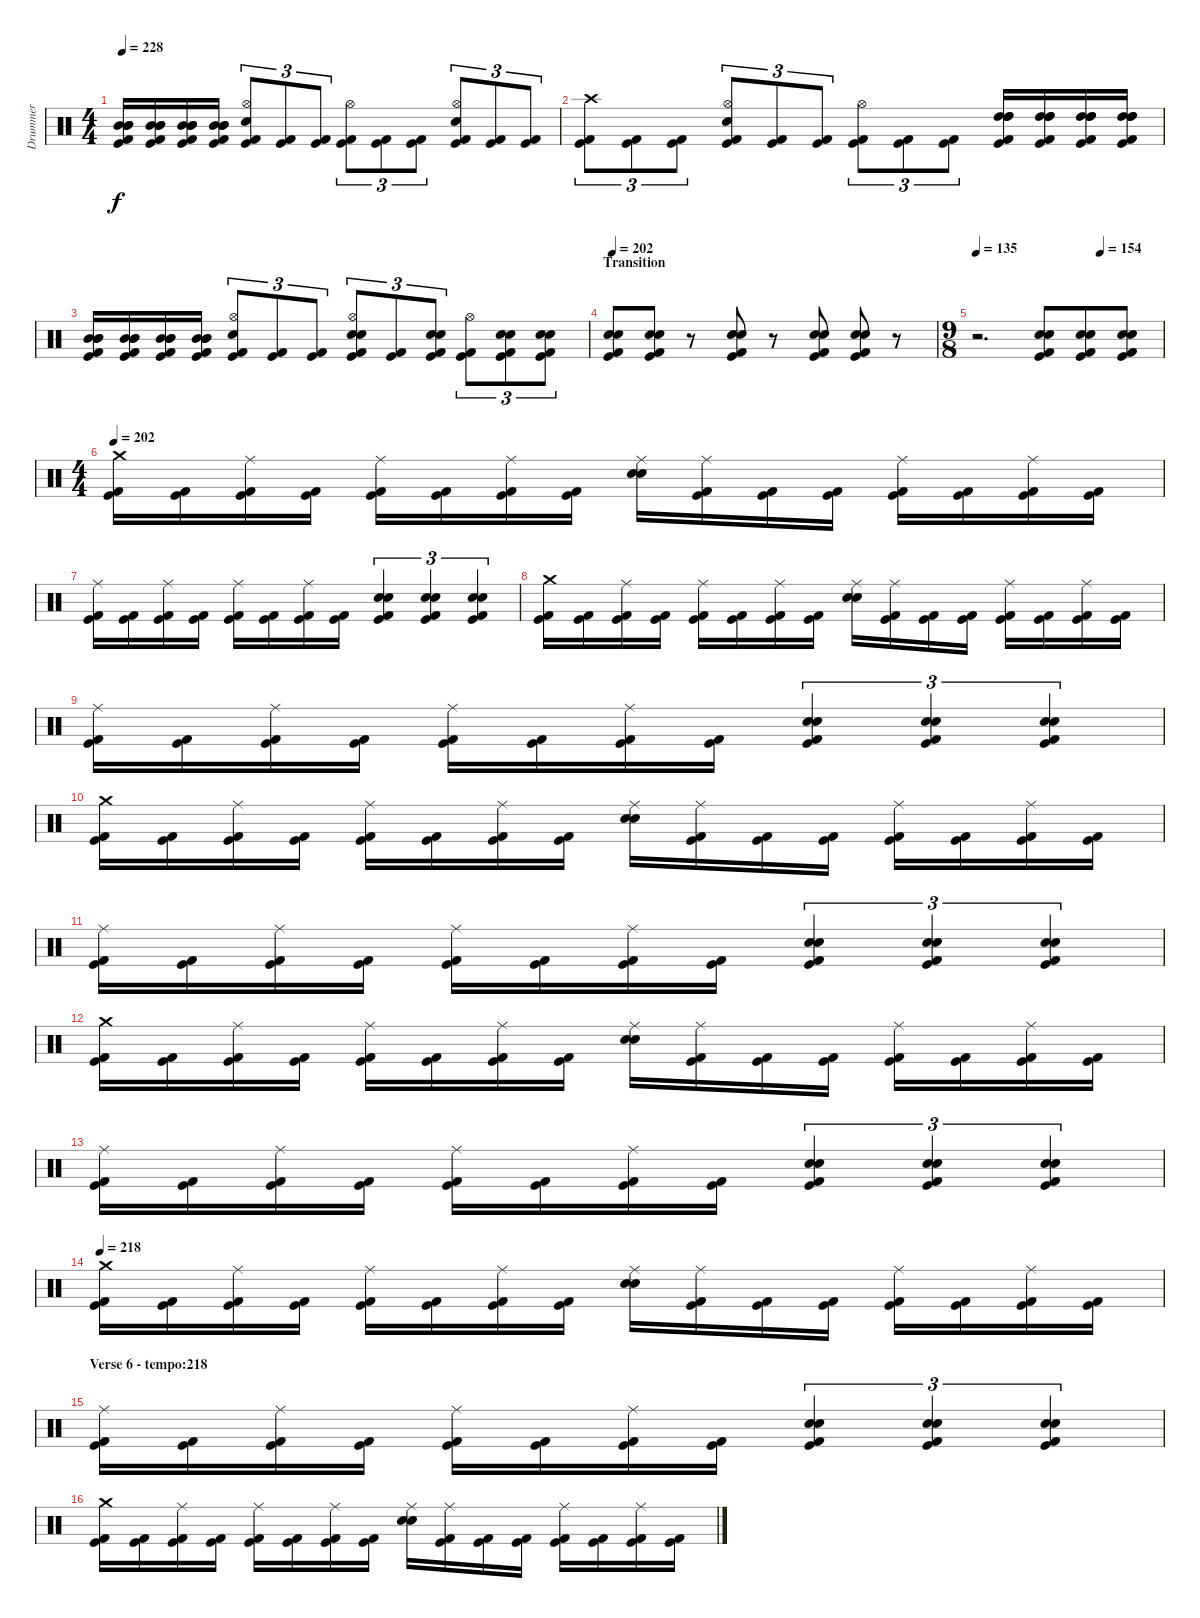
\track ("Drummer" "Drummer") {instrument percussion}
\staff {score}
\articulation defaults
\ts (4 4)
\tempo 228
\clef neutral
\ks c
("Mid Tom (hit)" "Mid Tom (hit)" "Mid Tom (hit)" "Kick (hit)" "Kick (hit) 2").16{dy f} ("Mid Tom (hit)" "Mid Tom (hit)" "Mid Tom (hit)" "Kick (hit)" "Kick (hit) 2").16 ("Mid Tom (hit)" "Mid Tom (hit)" "Mid Tom (hit)" "Kick (hit)" "Kick (hit) 2").16 ("Mid Tom (hit)" "Mid Tom (hit)" "Mid Tom (hit)" "Kick (hit)" "Kick (hit) 2").16 ("Hi-Hat (open)" "Snare (hit) 2" "Kick (hit)" "Kick (hit) 2").8{tu (3 2)} ("Kick (hit)" "Kick (hit) 2").8{tu (3 2)} ("Kick (hit)" "Kick (hit) 2").8{tu (3 2)} ("Hi-Hat (open)" "Kick (hit)" "Kick (hit) 2").8{tu (3 2)} ("Kick (hit)" "Kick (hit) 2").8{tu (3 2)} ("Kick (hit)" "Kick (hit) 2").8{tu (3 2)} ("Hi-Hat (open)" "Snare (hit) 2" "Kick (hit)" "Kick (hit) 2").8{tu (3 2)} ("Kick (hit)" "Kick (hit) 2").8{tu (3 2)} ("Kick (hit)" "Kick (hit) 2").8{tu (3 2)} |
("Crash high (hit)" "Kick (hit)" "Kick (hit) 2").8{tu (3 2)} ("Kick (hit)" "Kick (hit) 2").8{tu (3 2)} ("Kick (hit)" "Kick (hit) 2").8{tu (3 2)} ("Hi-Hat (open)" "Snare (hit) 2" "Kick (hit)" "Kick (hit) 2").8{tu (3 2)} ("Kick (hit)" "Kick (hit) 2").8{tu (3 2)} ("Kick (hit)" "Kick (hit) 2").8{tu (3 2)} ("Hi-Hat (open)" "Kick (hit)" "Kick (hit) 2").8{tu (3 2)} ("Kick (hit)" "Kick (hit) 2").8{tu (3 2)} ("Kick (hit)" "Kick (hit) 2").8{tu (3 2)} ("High Tom (hit)" "High Tom (hit)" "High Tom (hit)" "Kick (hit)" "Kick (hit) 2").16 ("High Tom (hit)" "High Tom (hit)" "High Tom (hit)" "Kick (hit)" "Kick (hit) 2").16 ("High Tom (hit)" "High Tom (hit)" "High Tom (hit)" "Kick (hit)" "Kick (hit) 2").16 ("High Tom (hit)" "High Tom (hit)" "High Tom (hit)" "Kick (hit)" "Kick (hit) 2").16 |
("Mid Tom (hit)" "Mid Tom (hit)" "Mid Tom (hit)" "Kick (hit)" "Kick (hit) 2").16 ("Mid Tom (hit)" "Mid Tom (hit)" "Mid Tom (hit)" "Kick (hit)" "Kick (hit) 2").16 ("Mid Tom (hit)" "Mid Tom (hit)" "Mid Tom (hit)" "Kick (hit)" "Kick (hit) 2").16 ("Mid Tom (hit)" "Mid Tom (hit)" "Mid Tom (hit)" "Kick (hit)" "Kick (hit) 2").16 ("Hi-Hat (open)" "Snare (hit) 2" "Kick (hit)" "Kick (hit) 2").8{tu (3 2)} ("Kick (hit)" "Kick (hit) 2").8{tu (3 2)} ("Kick (hit)" "Kick (hit) 2").8{tu (3 2)} ("Hi-Hat (open)" "Electric Snare (hit)" "Snare (hit) 2" "Kick (hit)" "Kick (hit) 2").8{tu (3 2)} ("Kick (hit)" "Kick (hit) 2").8{tu (3 2)} ("Electric Snare (hit)" "Snare (hit) 2" "Kick (hit)" "Kick (hit) 2").8{tu (3 2)} ("Hi-Hat (open)" "Kick (hit)" "Kick (hit) 2").8{tu (3 2)} ("Electric Snare (hit)" "Snare (hit) 2" "Kick (hit)" "Kick (hit) 2").8{tu (3 2)} ("Snare (hit) 2" "Electric Snare (hit)" "Kick (hit)" "Kick (hit) 2").8{tu (3 2)} |
\section ("" "Transition")
\tempo 202
("Electric Snare (hit)" "Snare (hit) 2" "Kick (hit)" "Kick (hit) 2").8 ("Electric Snare (hit)" "Snare (hit) 2" "Kick (hit) 2" "Kick (hit)").8 r.8 ("Electric Snare (hit)" "Snare (hit) 2" "Kick (hit)" "Kick (hit) 2").8 r.8 ("Electric Snare (hit)" "Snare (hit) 2" "Kick (hit)" "Kick (hit) 2").8 ("Electric Snare (hit)" "Kick (hit) 2" "Kick (hit)" "Snare (hit) 2").8 r.8 |
\ts (9 8)
\tempo 135
\tempo (154 0.6666666666666666)
r.2{d} ("Electric Snare (hit)" "Snare (hit) 2" "Kick (hit)" "Kick (hit) 2").8 ("Electric Snare (hit)" "Snare (hit) 2" "Kick (hit)" "Kick (hit) 2").8 ("Electric Snare (hit)" "Snare (hit) 2" "Kick (hit)" "Kick (hit) 2").8 |
\ts (4 4)
\tempo 202
("Crash medium (hit)" "Kick (hit)" "Kick (hit) 2").16 ("Kick (hit)" "Kick (hit) 2").16 ("Ride (middle)" "Kick (hit)" "Kick (hit) 2").16 ("Kick (hit)" "Kick (hit) 2").16 ("Ride (middle)" "Kick (hit)" "Kick (hit) 2").16 ("Kick (hit)" "Kick (hit) 2").16 ("Ride (middle)" "Kick (hit)" "Kick (hit) 2").16 ("Kick (hit)" "Kick (hit) 2").16 ("Ride (middle)" "Snare (hit) 2" "Electric Snare (hit)").16 ("Ride (middle)" "Kick (hit)" "Kick (hit) 2").16 ("Kick (hit)" "Kick (hit) 2").16 ("Kick (hit)" "Kick (hit) 2").16 ("Ride (middle)" "Kick (hit)" "Kick (hit) 2").16 ("Kick (hit)" "Kick (hit) 2").16 ("Ride (middle)" "Kick (hit)" "Kick (hit) 2").16 ("Kick (hit)" "Kick (hit) 2").16 |
("Ride (middle)" "Kick (hit)" "Kick (hit) 2").16 ("Kick (hit)" "Kick (hit) 2").16 ("Ride (middle)" "Kick (hit)" "Kick (hit) 2").16 ("Kick (hit)" "Kick (hit) 2").16 ("Ride (middle)" "Kick (hit)" "Kick (hit) 2").16 ("Kick (hit)" "Kick (hit) 2").16 ("Ride (middle)" "Kick (hit)" "Kick (hit) 2").16 ("Kick (hit)" "Kick (hit) 2").16 ("Electric Snare (hit)" "Snare (hit) 2" "Kick (hit) 2" "Kick (hit)").4{tu (3 2)} ("Electric Snare (hit)" "Snare (hit) 2" "Kick (hit)" "Kick (hit) 2").4{tu (3 2)} ("Electric Snare (hit)" "Snare (hit) 2" "Kick (hit)" "Kick (hit) 2").4{tu (3 2)} |
("Crash medium (hit)" "Kick (hit)" "Kick (hit) 2").16 ("Kick (hit)" "Kick (hit) 2").16 ("Ride (middle)" "Kick (hit)" "Kick (hit) 2").16 ("Kick (hit)" "Kick (hit) 2").16 ("Ride (middle)" "Kick (hit)" "Kick (hit) 2").16 ("Kick (hit)" "Kick (hit) 2").16 ("Ride (middle)" "Kick (hit)" "Kick (hit) 2").16 ("Kick (hit)" "Kick (hit) 2").16 ("Ride (middle)" "Snare (hit) 2" "Electric Snare (hit)").16 ("Ride (middle)" "Kick (hit)" "Kick (hit) 2").16 ("Kick (hit)" "Kick (hit) 2").16 ("Kick (hit)" "Kick (hit) 2").16 ("Ride (middle)" "Kick (hit)" "Kick (hit) 2").16 ("Kick (hit)" "Kick (hit) 2").16 ("Ride (middle)" "Kick (hit)" "Kick (hit) 2").16 ("Kick (hit)" "Kick (hit) 2").16 |
("Ride (middle)" "Kick (hit)" "Kick (hit) 2").16 ("Kick (hit)" "Kick (hit) 2").16 ("Ride (middle)" "Kick (hit)" "Kick (hit) 2").16 ("Kick (hit)" "Kick (hit) 2").16 ("Ride (middle)" "Kick (hit)" "Kick (hit) 2").16 ("Kick (hit)" "Kick (hit) 2").16 ("Ride (middle)" "Kick (hit)" "Kick (hit) 2").16 ("Kick (hit)" "Kick (hit) 2").16 ("Electric Snare (hit)" "Snare (hit) 2" "Kick (hit) 2" "Kick (hit)").4{tu (3 2)} ("Electric Snare (hit)" "Snare (hit) 2" "Kick (hit)" "Kick (hit) 2").4{tu (3 2)} ("Electric Snare (hit)" "Snare (hit) 2" "Kick (hit)" "Kick (hit) 2").4{tu (3 2)} |
("Crash medium (hit)" "Kick (hit)" "Kick (hit) 2").16 ("Kick (hit)" "Kick (hit) 2").16 ("Ride (middle)" "Kick (hit)" "Kick (hit) 2").16 ("Kick (hit)" "Kick (hit) 2").16 ("Ride (middle)" "Kick (hit)" "Kick (hit) 2").16 ("Kick (hit)" "Kick (hit) 2").16 ("Ride (middle)" "Kick (hit)" "Kick (hit) 2").16 ("Kick (hit)" "Kick (hit) 2").16 ("Ride (middle)" "Snare (hit) 2" "Electric Snare (hit)").16 ("Ride (middle)" "Kick (hit)" "Kick (hit) 2").16 ("Kick (hit)" "Kick (hit) 2").16 ("Kick (hit)" "Kick (hit) 2").16 ("Ride (middle)" "Kick (hit)" "Kick (hit) 2").16 ("Kick (hit)" "Kick (hit) 2").16 ("Ride (middle)" "Kick (hit)" "Kick (hit) 2").16 ("Kick (hit)" "Kick (hit) 2").16 |
("Ride (middle)" "Kick (hit)" "Kick (hit) 2").16 ("Kick (hit)" "Kick (hit) 2").16 ("Ride (middle)" "Kick (hit)" "Kick (hit) 2").16 ("Kick (hit)" "Kick (hit) 2").16 ("Ride (middle)" "Kick (hit)" "Kick (hit) 2").16 ("Kick (hit)" "Kick (hit) 2").16 ("Ride (middle)" "Kick (hit)" "Kick (hit) 2").16 ("Kick (hit)" "Kick (hit) 2").16 ("Electric Snare (hit)" "Snare (hit) 2" "Kick (hit) 2" "Kick (hit)").4{tu (3 2)} ("Electric Snare (hit)" "Snare (hit) 2" "Kick (hit)" "Kick (hit) 2").4{tu (3 2)} ("Electric Snare (hit)" "Snare (hit) 2" "Kick (hit)" "Kick (hit) 2").4{tu (3 2)} |
("Crash medium (hit)" "Kick (hit)" "Kick (hit) 2").16 ("Kick (hit)" "Kick (hit) 2").16 ("Ride (middle)" "Kick (hit)" "Kick (hit) 2").16 ("Kick (hit)" "Kick (hit) 2").16 ("Ride (middle)" "Kick (hit)" "Kick (hit) 2").16 ("Kick (hit)" "Kick (hit) 2").16 ("Ride (middle)" "Kick (hit)" "Kick (hit) 2").16 ("Kick (hit)" "Kick (hit) 2").16 ("Ride (middle)" "Snare (hit) 2" "Electric Snare (hit)").16 ("Ride (middle)" "Kick (hit)" "Kick (hit) 2").16 ("Kick (hit)" "Kick (hit) 2").16 ("Kick (hit)" "Kick (hit) 2").16 ("Ride (middle)" "Kick (hit)" "Kick (hit) 2").16 ("Kick (hit)" "Kick (hit) 2").16 ("Ride (middle)" "Kick (hit)" "Kick (hit) 2").16 ("Kick (hit)" "Kick (hit) 2").16 |
("Ride (middle)" "Kick (hit)" "Kick (hit) 2").16 ("Kick (hit)" "Kick (hit) 2").16 ("Ride (middle)" "Kick (hit)" "Kick (hit) 2").16 ("Kick (hit)" "Kick (hit) 2").16 ("Ride (middle)" "Kick (hit)" "Kick (hit) 2").16 ("Kick (hit)" "Kick (hit) 2").16 ("Ride (middle)" "Kick (hit)" "Kick (hit) 2").16 ("Kick (hit)" "Kick (hit) 2").16 ("Electric Snare (hit)" "Snare (hit) 2" "Kick (hit) 2" "Kick (hit)").4{tu (3 2)} ("Electric Snare (hit)" "Snare (hit) 2" "Kick (hit)" "Kick (hit) 2").4{tu (3 2)} ("Electric Snare (hit)" "Snare (hit) 2" "Kick (hit)" "Kick (hit) 2").4{tu (3 2)} |
\tempo 218
("Crash medium (hit)" "Kick (hit)" "Kick (hit) 2").16 ("Kick (hit)" "Kick (hit) 2").16 ("Ride (middle)" "Kick (hit)" "Kick (hit) 2").16 ("Kick (hit)" "Kick (hit) 2").16 ("Ride (middle)" "Kick (hit)" "Kick (hit) 2").16 ("Kick (hit)" "Kick (hit) 2").16 ("Ride (middle)" "Kick (hit)" "Kick (hit) 2").16 ("Kick (hit)" "Kick (hit) 2").16 ("Ride (middle)" "Snare (hit) 2" "Electric Snare (hit)").16 ("Ride (middle)" "Kick (hit)" "Kick (hit) 2").16 ("Kick (hit)" "Kick (hit) 2").16 ("Kick (hit)" "Kick (hit) 2").16 ("Ride (middle)" "Kick (hit)" "Kick (hit) 2").16 ("Kick (hit)" "Kick (hit) 2").16 ("Ride (middle)" "Kick (hit)" "Kick (hit) 2").16 ("Kick (hit)" "Kick (hit) 2").16 |
\section ("" "Verse 6 - tempo:218")
("Ride (middle)" "Kick (hit)" "Kick (hit) 2").16 ("Kick (hit)" "Kick (hit) 2").16 ("Ride (middle)" "Kick (hit)" "Kick (hit) 2").16 ("Kick (hit)" "Kick (hit) 2").16 ("Ride (middle)" "Kick (hit)" "Kick (hit) 2").16 ("Kick (hit)" "Kick (hit) 2").16 ("Ride (middle)" "Kick (hit)" "Kick (hit) 2").16 ("Kick (hit)" "Kick (hit) 2").16 ("Electric Snare (hit)" "Snare (hit) 2" "Kick (hit) 2" "Kick (hit)").4{tu (3 2)} ("Electric Snare (hit)" "Snare (hit) 2" "Kick (hit)" "Kick (hit) 2").4{tu (3 2)} ("Electric Snare (hit)" "Snare (hit) 2" "Kick (hit)" "Kick (hit) 2").4{tu (3 2)} |
("Crash medium (hit)" "Kick (hit)" "Kick (hit) 2").16 ("Kick (hit)" "Kick (hit) 2").16 ("Ride (middle)" "Kick (hit)" "Kick (hit) 2").16 ("Kick (hit)" "Kick (hit) 2").16 ("Ride (middle)" "Kick (hit)" "Kick (hit) 2").16 ("Kick (hit)" "Kick (hit) 2").16 ("Ride (middle)" "Kick (hit)" "Kick (hit) 2").16 ("Kick (hit)" "Kick (hit) 2").16 ("Ride (middle)" "Snare (hit) 2" "Electric Snare (hit)").16 ("Ride (middle)" "Kick (hit)" "Kick (hit) 2").16 ("Kick (hit)" "Kick (hit) 2").16 ("Kick (hit)" "Kick (hit) 2").16 ("Ride (middle)" "Kick (hit)" "Kick (hit) 2").16 ("Kick (hit)" "Kick (hit) 2").16 ("Ride (middle)" "Kick (hit)" "Kick (hit) 2").16 ("Kick (hit)" "Kick (hit) 2").16
